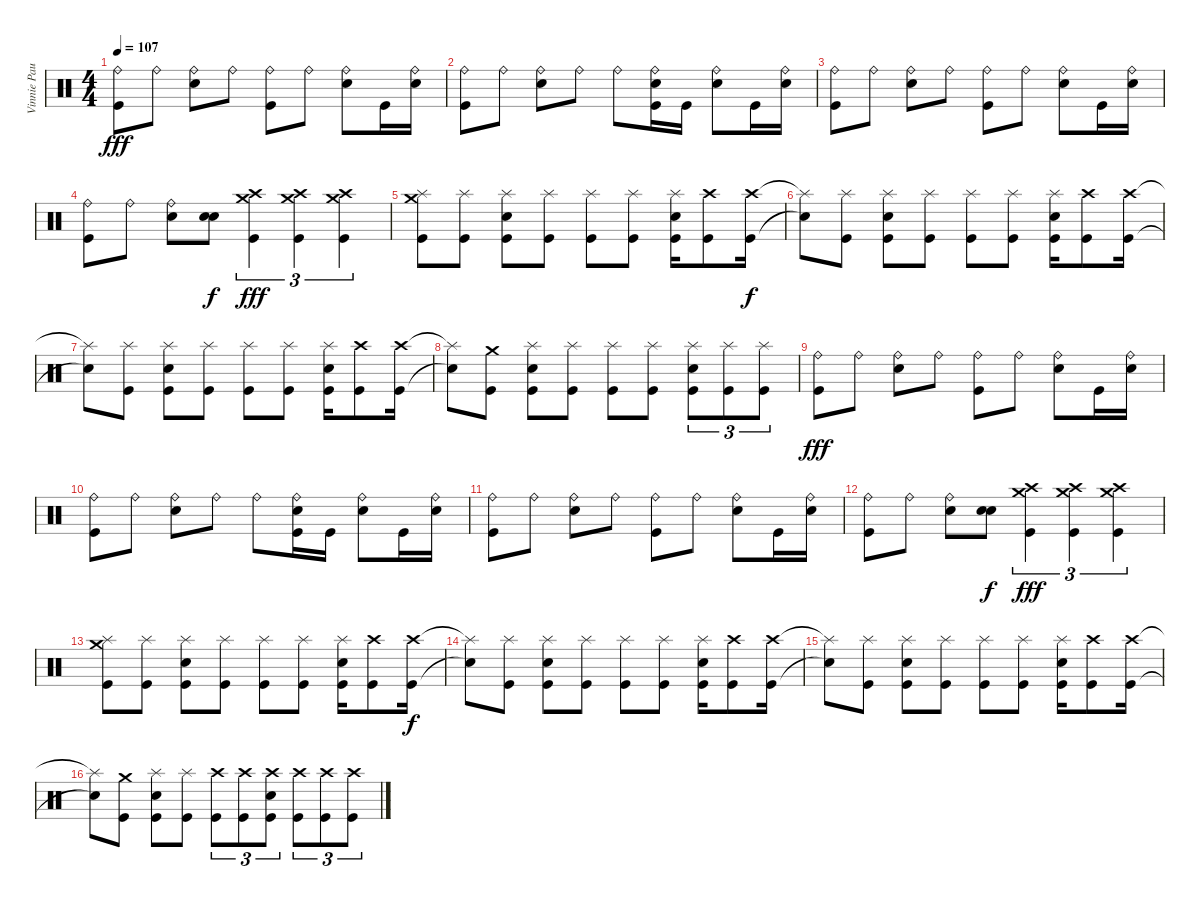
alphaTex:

\track ("Vinnie Paul" "Vinnie Pau") {instrument percussion}
\staff {score}
\articulation defaults
\ts (4 4)
\tempo 107
\clef neutral
\ks c
("Ride (bell)" "Kick (hit)").8{dy fff} "Ride (bell)".8 ("Ride (bell)" "Electric Snare (hit)").8 "Ride (bell)".8 ("Ride (bell)" "Kick (hit)").8 "Ride (bell)".8 ("Ride (bell)" "Electric Snare (hit)").8 "Kick (hit)".16 ("Ride (bell)" "Electric Snare (hit)").16 |
("Ride (bell)" "Kick (hit)").8 "Ride (bell)".8 ("Ride (bell)" "Electric Snare (hit)").8 "Ride (bell)".8 "Ride (bell)".8 ("Ride (bell)" "Kick (hit)" "Electric Snare (hit)").16 "Kick (hit)".16 ("Ride (bell)" "Electric Snare (hit)").8 "Kick (hit)".16 ("Ride (bell)" "Electric Snare (hit)").16 |
("Ride (bell)" "Kick (hit)").8 "Ride (bell)".8 ("Ride (bell)" "Electric Snare (hit)").8 "Ride (bell)".8 ("Ride (bell)" "Kick (hit)").8 "Ride (bell)".8 ("Ride (bell)" "Electric Snare (hit)").8 "Kick (hit)".16 ("Ride (bell)" "Electric Snare (hit)").16 |
("Ride (bell)" "Kick (hit)").8 "Ride (bell)".8 ("Ride (bell)" "Electric Snare (hit)").8 ("Electric Snare (hit)" "Electric Snare (hit)").8{dy f} ("Crash high (hit)" "Crash medium (hit)" "Kick (hit)").4{tu (3 2) dy fff} ("Crash high (hit)" "Crash medium (hit)" "Kick (hit)").4{tu (3 2)} ("Crash high (hit)" "Crash medium (hit)" "Kick (hit)").4{tu (3 2)} |
("Splash (hit)" "Crash medium (hit)" "Kick (hit)").8 ("Splash (hit)" "Kick (hit)").8 ("Splash (hit)" "Kick (hit)" "Electric Snare (hit)").8 ("Splash (hit)" "Kick (hit)").8 ("Splash (hit)" "Kick (hit)").8 ("Splash (hit)" "Kick (hit)").8 ("Splash (hit)" "Kick (hit)" "Electric Snare (hit)").16 ("Crash high (hit)" "Kick (hit)").8 ("Crash high (hit)" "Kick (hit)").16{dy f} |
("Splash (hit)"{t} "Snare (hit)"{t}).8 ("Splash (hit)" "Kick (hit)").8 ("Splash (hit)" "Kick (hit)" "Electric Snare (hit)").8 ("Splash (hit)" "Kick (hit)").8 ("Splash (hit)" "Kick (hit)").8 ("Splash (hit)" "Kick (hit)").8 ("Splash (hit)" "Kick (hit)" "Electric Snare (hit)").16 ("Crash high (hit)" "Kick (hit)").8 ("Crash high (hit)" "Kick (hit)").16 |
("Splash (hit)"{t} "Snare (hit)"{t}).8 ("Splash (hit)" "Kick (hit)").8 ("Splash (hit)" "Kick (hit)" "Electric Snare (hit)").8 ("Splash (hit)" "Kick (hit)").8 ("Splash (hit)" "Kick (hit)").8 ("Splash (hit)" "Kick (hit)").8 ("Splash (hit)" "Kick (hit)" "Electric Snare (hit)").16 ("Crash high (hit)" "Kick (hit)").8 ("Crash high (hit)" "Kick (hit)").16 |
("Splash (hit)"{t} "Snare (hit)"{t}).8 ("Crash medium (hit)" "Kick (hit)").8 ("Splash (hit)" "Kick (hit)" "Electric Snare (hit)").8 ("Splash (hit)" "Kick (hit)").8 ("Splash (hit)" "Kick (hit)").8 ("Splash (hit)" "Kick (hit)").8 ("Splash (hit)" "Kick (hit)" "Electric Snare (hit)").8{tu (3 2)} ("Splash (hit)" "Kick (hit)").8{tu (3 2)} ("Splash (hit)" "Kick (hit)").8{tu (3 2)} |
("Ride (bell)" "Kick (hit)").8{dy fff} "Ride (bell)".8 ("Ride (bell)" "Electric Snare (hit)").8 "Ride (bell)".8 ("Ride (bell)" "Kick (hit)").8 "Ride (bell)".8 ("Ride (bell)" "Electric Snare (hit)").8 "Kick (hit)".16 ("Ride (bell)" "Electric Snare (hit)").16 |
("Ride (bell)" "Kick (hit)").8 "Ride (bell)".8 ("Ride (bell)" "Electric Snare (hit)").8 "Ride (bell)".8 "Ride (bell)".8 ("Ride (bell)" "Kick (hit)" "Electric Snare (hit)").16 "Kick (hit)".16 ("Ride (bell)" "Electric Snare (hit)").8 "Kick (hit)".16 ("Ride (bell)" "Electric Snare (hit)").16 |
("Ride (bell)" "Kick (hit)").8 "Ride (bell)".8 ("Ride (bell)" "Electric Snare (hit)").8 "Ride (bell)".8 ("Ride (bell)" "Kick (hit)").8 "Ride (bell)".8 ("Ride (bell)" "Electric Snare (hit)").8 "Kick (hit)".16 ("Ride (bell)" "Electric Snare (hit)").16 |
("Ride (bell)" "Kick (hit)").8 "Ride (bell)".8 ("Ride (bell)" "Electric Snare (hit)").8 ("Electric Snare (hit)" "Electric Snare (hit)").8{dy f} ("Crash high (hit)" "Crash medium (hit)" "Kick (hit)").4{tu (3 2) dy fff} ("Crash high (hit)" "Crash medium (hit)" "Kick (hit)").4{tu (3 2)} ("Crash high (hit)" "Crash medium (hit)" "Kick (hit)").4{tu (3 2)} |
("Splash (hit)" "Crash medium (hit)" "Kick (hit)").8 ("Splash (hit)" "Kick (hit)").8 ("Splash (hit)" "Kick (hit)" "Electric Snare (hit)").8 ("Splash (hit)" "Kick (hit)").8 ("Splash (hit)" "Kick (hit)").8 ("Splash (hit)" "Kick (hit)").8 ("Splash (hit)" "Kick (hit)" "Electric Snare (hit)").16 ("Crash high (hit)" "Kick (hit)").8 ("Crash high (hit)" "Kick (hit)").16{dy f} |
("Splash (hit)"{t} "Snare (hit)"{t}).8 ("Splash (hit)" "Kick (hit)").8 ("Splash (hit)" "Kick (hit)" "Electric Snare (hit)").8 ("Splash (hit)" "Kick (hit)").8 ("Splash (hit)" "Kick (hit)").8 ("Splash (hit)" "Kick (hit)").8 ("Splash (hit)" "Kick (hit)" "Electric Snare (hit)").16 ("Crash high (hit)" "Kick (hit)").8 ("Crash high (hit)" "Kick (hit)").16 |
("Splash (hit)"{t} "Snare (hit)"{t}).8 ("Splash (hit)" "Kick (hit)").8 ("Splash (hit)" "Kick (hit)" "Electric Snare (hit)").8 ("Splash (hit)" "Kick (hit)").8 ("Splash (hit)" "Kick (hit)").8 ("Splash (hit)" "Kick (hit)").8 ("Splash (hit)" "Kick (hit)" "Electric Snare (hit)").16 ("Crash high (hit)" "Kick (hit)").8 ("Crash high (hit)" "Kick (hit)").16 |
("Splash (hit)"{t} "Snare (hit)"{t}).8 ("Crash medium (hit)" "Kick (hit)").8 ("Splash (hit)" "Kick (hit)" "Electric Snare (hit)").8 ("Splash (hit)" "Kick (hit)").8 ("Crash high (hit)" "Kick (hit)").8{tu (3 2)} ("Crash high (hit)" "Kick (hit)").8{tu (3 2)} ("Crash high (hit)" "Kick (hit)" "Electric Snare (hit)").8{tu (3 2)} ("Crash high (hit)" "Kick (hit)").8{tu (3 2)} ("Crash high (hit)" "Kick (hit)").8{tu (3 2)} ("Crash high (hit)" "Kick (hit)").8{tu (3 2)}
